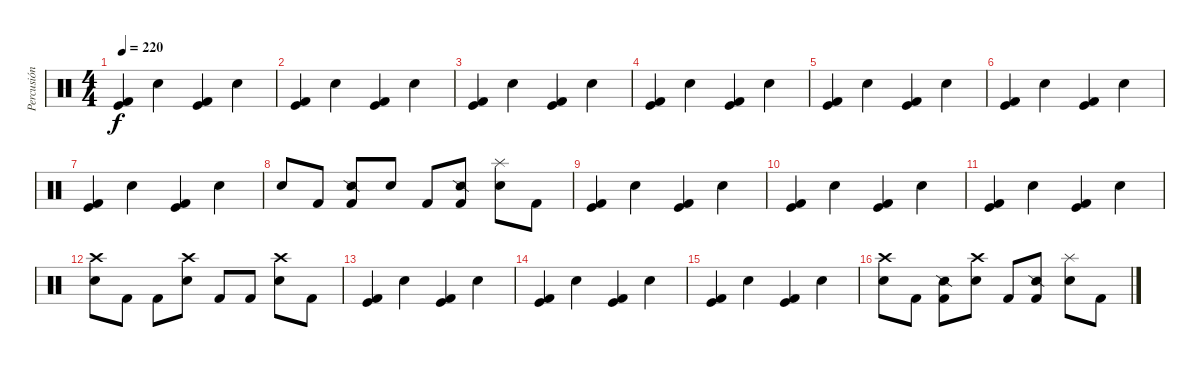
\track ("Percusión" "Percusión") {instrument percussion}
\staff {score}
\articulation defaults
\ts (4 4)
\tempo 220
\clef neutral
\ks c
("Kick (hit) 2" "Kick (hit)").4{dy f} "Snare (hit) 2".4 ("Kick (hit) 2" "Kick (hit)").4 "Snare (hit) 2".4 |
("Kick (hit) 2" "Kick (hit)").4 "Snare (hit) 2".4 ("Kick (hit) 2" "Kick (hit)").4 "Snare (hit) 2".4 |
("Kick (hit) 2" "Kick (hit)").4 "Snare (hit) 2".4 ("Kick (hit) 2" "Kick (hit)").4 "Snare (hit) 2".4 |
("Kick (hit) 2" "Kick (hit)").4 "Snare (hit) 2".4 ("Kick (hit) 2" "Kick (hit)").4 "Snare (hit) 2".4 |
("Kick (hit) 2" "Kick (hit)").4 "Snare (hit) 2".4 ("Kick (hit) 2" "Kick (hit)").4 "Snare (hit) 2".4 |
("Kick (hit) 2" "Kick (hit)").4 "Snare (hit) 2".4 ("Kick (hit) 2" "Kick (hit)").4 "Snare (hit) 2".4 |
("Kick (hit) 2" "Kick (hit)").4 "Snare (hit) 2".4 ("Kick (hit) 2" "Kick (hit)").4 "Snare (hit) 2".4 |
"Snare (hit) 2".8 "Kick (hit) 2".8 ("Snare (side stick) 2" "Kick (hit) 2").8 "Snare (hit) 2".8 "Kick (hit) 2".8 ("Snare (side stick) 2" "Kick (hit) 2").8 ("Splash (hit)" "Snare (hit) 2").8 "Kick (hit) 2".8 |
("Kick (hit) 2" "Kick (hit)").4 "Snare (hit) 2".4 ("Kick (hit) 2" "Kick (hit)").4 "Snare (hit) 2".4 |
("Kick (hit) 2" "Kick (hit)").4 "Snare (hit) 2".4 ("Kick (hit) 2" "Kick (hit)").4 "Snare (hit) 2".4 |
("Kick (hit) 2" "Kick (hit)").4 "Snare (hit) 2".4 ("Kick (hit) 2" "Kick (hit)").4 "Snare (hit) 2".4 |
("Crash high (hit)" "Snare (hit) 2").8 "Kick (hit) 2".8 "Kick (hit) 2".8 ("Crash high (hit)" "Snare (hit) 2").8 "Kick (hit) 2".8 "Kick (hit) 2".8 ("Crash high (hit)" "Snare (hit) 2").8 "Kick (hit) 2".8 |
("Kick (hit) 2" "Kick (hit)").4 "Snare (hit) 2".4 ("Kick (hit) 2" "Kick (hit)").4 "Snare (hit) 2".4 |
("Kick (hit) 2" "Kick (hit)").4 "Snare (hit) 2".4 ("Kick (hit) 2" "Kick (hit)").4 "Snare (hit) 2".4 |
("Kick (hit) 2" "Kick (hit)").4 "Snare (hit) 2".4 ("Kick (hit) 2" "Kick (hit)").4 "Snare (hit) 2".4 |
("Crash high (hit)" "Snare (hit) 2").8 "Kick (hit) 2".8 ("Snare (side stick) 2" "Kick (hit) 2").8 ("Crash high (hit)" "Snare (hit) 2").8 "Kick (hit) 2".8 ("Snare (side stick) 2" "Kick (hit) 2").8 ("Splash (hit)" "Snare (hit) 2").8 "Kick (hit) 2".8
